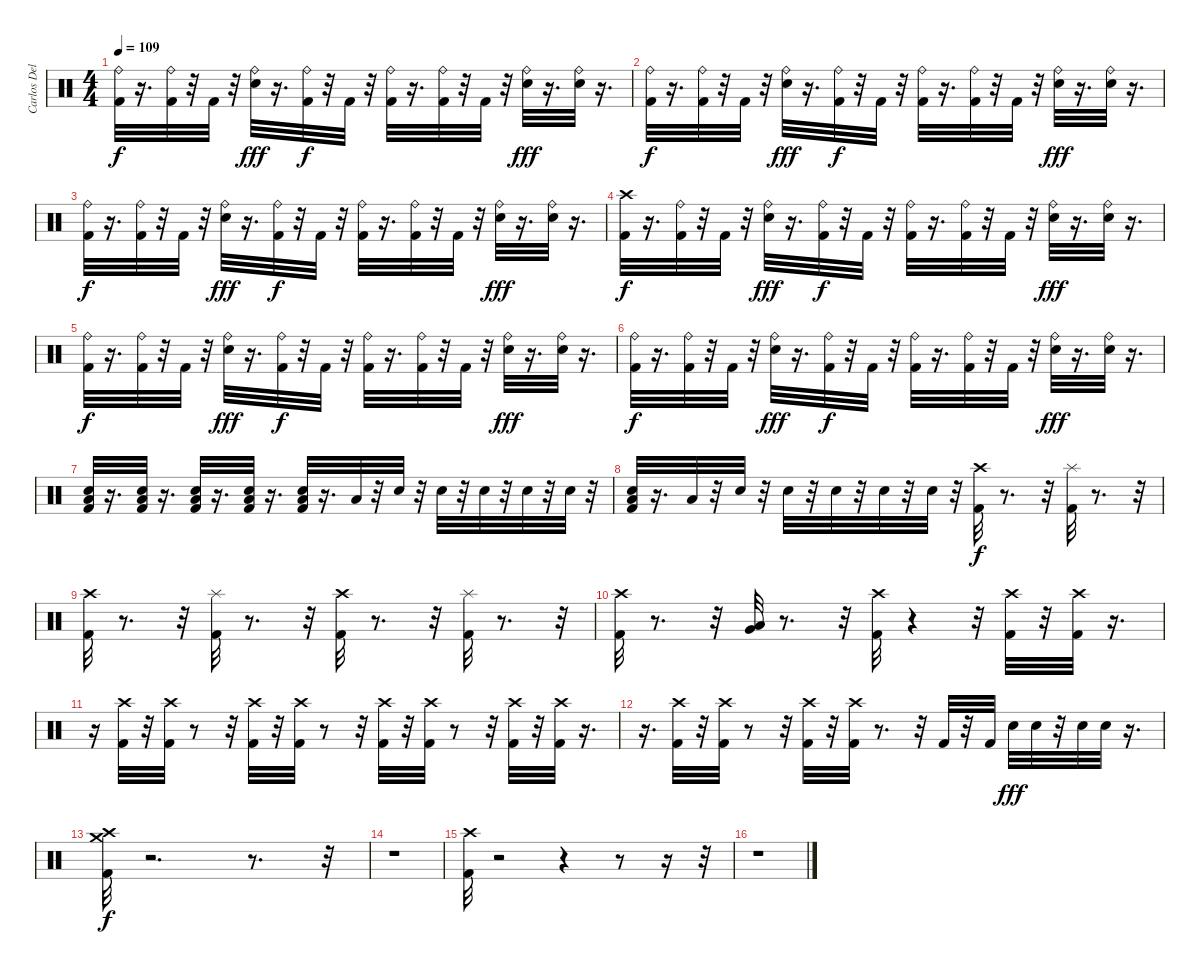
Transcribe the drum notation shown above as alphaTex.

\track ("Carlos Delgado" "Carlos Del") {instrument percussion}
\staff {score}
\articulation defaults
\ts (4 4)
\tempo 109
\clef neutral
\ks c
("Kick (hit) 2" "Ride (bell)").32{dy f} r.16{d} ("Ride (bell)" "Kick (hit) 2").32 r.32 "Kick (hit) 2".32 r.32 ("Ride (bell)" "Electric Snare (hit)").32{dy fff} r.16{d} ("Ride (bell)" "Kick (hit) 2").32{dy f} r.32 "Kick (hit) 2".32 r.32 ("Kick (hit) 2" "Ride (bell)").32 r.16{d} ("Ride (bell)" "Kick (hit) 2").32 r.32 "Kick (hit) 2".32 r.32 ("Ride (bell)" "Electric Snare (hit)").32{dy fff} r.16{d} ("Electric Snare (hit)" "Ride (bell)").32 r.16{d} |
("Ride (bell)" "Kick (hit) 2").32{dy f} r.16{d} ("Ride (bell)" "Kick (hit) 2").32 r.32 "Kick (hit) 2".32 r.32 ("Ride (bell)" "Electric Snare (hit)").32{dy fff} r.16{d} ("Kick (hit) 2" "Ride (bell)").32{dy f} r.32 "Kick (hit) 2".32 r.32 ("Kick (hit) 2" "Ride (bell)").32 r.16{d} ("Ride (bell)" "Kick (hit) 2").32 r.32 "Kick (hit) 2".32 r.32 ("Electric Snare (hit)" "Ride (bell)").32{dy fff} r.16{d} ("Ride (bell)" "Electric Snare (hit)").32 r.16{d} |
("Ride (bell)" "Kick (hit) 2").32{dy f} r.16{d} ("Ride (bell)" "Kick (hit) 2").32 r.32 "Kick (hit) 2".32 r.32 ("Electric Snare (hit)" "Ride (bell)").32{dy fff} r.16{d} ("Kick (hit) 2" "Ride (bell)").32{dy f} r.32 "Kick (hit) 2".32 r.32 ("Kick (hit) 2" "Ride (bell)").32 r.16{d} ("Ride (bell)" "Kick (hit) 2").32 r.32 "Kick (hit) 2".32 r.32 ("Ride (bell)" "Electric Snare (hit)").32{dy fff} r.16{d} ("Ride (bell)" "Electric Snare (hit)").32 r.16{d} |
("Kick (hit) 2" "Crash high (hit)").32{dy f} r.16{d} ("Ride (bell)" "Kick (hit) 2").32 r.32 "Kick (hit) 2".32 r.32 ("Ride (bell)" "Electric Snare (hit)").32{dy fff} r.16{d} ("Kick (hit) 2" "Ride (bell)").32{dy f} r.32 "Kick (hit) 2".32 r.32 ("Ride (bell)" "Kick (hit) 2").32 r.16{d} ("Kick (hit) 2" "Ride (bell)").32 r.32 "Kick (hit) 2".32 r.32 ("Ride (bell)" "Electric Snare (hit)").32{dy fff} r.16{d} ("Ride (bell)" "Electric Snare (hit)").32 r.16{d} |
("Ride (bell)" "Kick (hit) 2").32{dy f} r.16{d} ("Ride (bell)" "Kick (hit) 2").32 r.32 "Kick (hit) 2".32 r.32 ("Ride (bell)" "Electric Snare (hit)").32{dy fff} r.16{d} ("Kick (hit) 2" "Ride (bell)").32{dy f} r.32 "Kick (hit) 2".32 r.32 ("Ride (bell)" "Kick (hit) 2").32 r.16{d} ("Ride (bell)" "Kick (hit) 2").32 r.32 "Kick (hit) 2".32 r.32 ("Electric Snare (hit)" "Ride (bell)").32{dy fff} r.16{d} ("Electric Snare (hit)" "Ride (bell)").32 r.16{d} |
("Kick (hit) 2" "Ride (bell)").32{dy f} r.16{d} ("Ride (bell)" "Kick (hit) 2").32 r.32 "Kick (hit) 2".32 r.32 ("Electric Snare (hit)" "Ride (bell)").32{dy fff} r.16{d} ("Ride (bell)" "Kick (hit) 2").32{dy f} r.32 "Kick (hit) 2".32 r.32 ("Ride (bell)" "Kick (hit) 2").32 r.16{d} ("Kick (hit) 2" "Ride (bell)").32 r.32 "Kick (hit) 2".32 r.32 ("Ride (bell)" "Electric Snare (hit)").32{dy fff} r.16{d} ("Ride (bell)" "Electric Snare (hit)").32 r.16{d} |
("Kick (hit) 2" "Low Floor Tom (hit)" "Electric Snare (hit)").32 r.16{d} ("Low Floor Tom (hit)" "Electric Snare (hit)" "Kick (hit) 2").32 r.16{d} ("Low Floor Tom (hit)" "Kick (hit) 2" "Electric Snare (hit)").32 r.16{d} ("Low Floor Tom (hit)" "Kick (hit) 2" "Electric Snare (hit)").32 r.16{d} ("Low Floor Tom (hit)" "Kick (hit) 2" "Electric Snare (hit)").32 r.16{d} "Low Floor Tom (hit)".32 r.32 "Electric Snare (hit)".32 r.32 "Electric Snare (hit)".32 r.32 "Electric Snare (hit)".32 r.32 "Electric Snare (hit)".32 r.32 "Electric Snare (hit)".32 r.32 |
("Low Floor Tom (hit)" "Kick (hit) 2" "Electric Snare (hit)").32 r.16{d} "Low Floor Tom (hit)".32 r.32 "Electric Snare (hit)".32 r.32 "Electric Snare (hit)".32 r.32 "Electric Snare (hit)".32 r.32 "Electric Snare (hit)".32 r.32 "Electric Snare (hit)".32 r.32 ("Crash high (hit)" "Kick (hit) 2").32{dy f} r.8{d} r.32 ("Splash (hit)" "Kick (hit) 2").32 r.8{d} r.32 |
("Crash high (hit)" "Kick (hit) 2").32 r.8{d} r.32 ("Splash (hit)" "Kick (hit) 2").32 r.8{d} r.32 ("Crash high (hit)" "Kick (hit) 2").32 r.8{d} r.32 ("Splash (hit)" "Kick (hit) 2").32 r.8{d} r.32 |
("Crash high (hit)" "Kick (hit) 2").32 r.8{d} r.32 ("Very Low Tom (hit)" "Low Floor Tom (hit)").32 r.8{d} r.32 ("Crash high (hit)" "Kick (hit) 2").32 r.4 r.32 ("Crash high (hit)" "Kick (hit) 2").32 r.32 ("Crash high (hit)" "Kick (hit) 2").32 r.16{d} |
r.16 ("Crash high (hit)" "Kick (hit) 2").32 r.32 ("Crash high (hit)" "Kick (hit) 2").32 r.8 r.32 ("Kick (hit) 2" "Crash high (hit)").32 r.32 ("Crash high (hit)" "Kick (hit) 2").32 r.8 r.32 ("Crash high (hit)" "Kick (hit) 2").32 r.32 ("Kick (hit) 2" "Crash high (hit)").32 r.8 r.32 ("Crash high (hit)" "Kick (hit) 2").32 r.32 ("Kick (hit) 2" "Crash high (hit)").32 r.16{d} |
r.16{d} ("Kick (hit) 2" "Crash high (hit)").32 r.32 ("Crash high (hit)" "Kick (hit) 2").32 r.8 r.32 ("Crash high (hit)" "Kick (hit) 2").32 r.32 ("Kick (hit) 2" "Crash high (hit)").32 r.8{d} r.32 "Kick (hit) 2".32 r.32 "Kick (hit) 2".32 "Electric Snare (hit)".32{dy fff} "Electric Snare (hit)".32 r.32 "Electric Snare (hit)".32 "Electric Snare (hit)".32 r.16{d} |
("Crash medium (hit)" "Crash high (hit)" "Kick (hit) 2").32{dy f} r.2{d} r.8{d} r.32 |
r.1 |
("Crash high (hit)" "Kick (hit) 2").32 r.2 r.4 r.8 r.16 r.32 |
r.1
